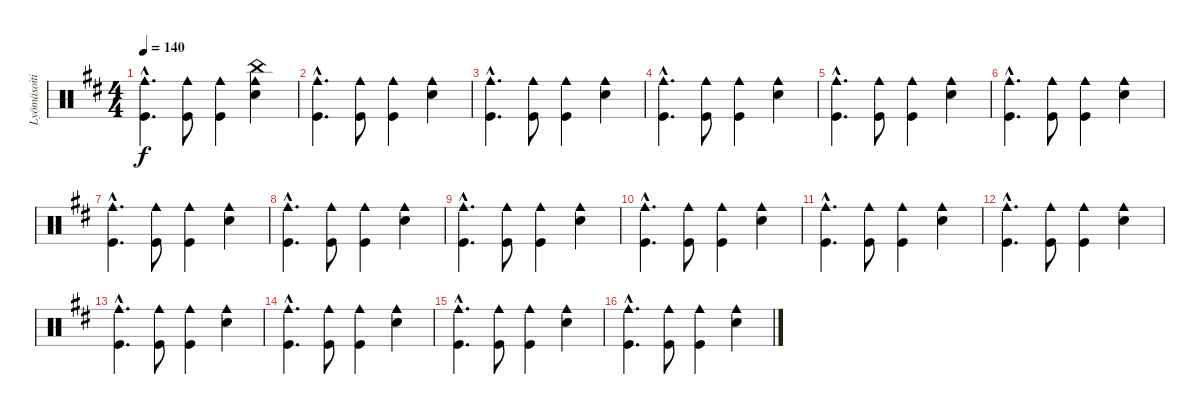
\track ("Lyömäsoitin" "Lyömäsoiti") {instrument percussion}
\staff {score}
\articulation defaults
\ts (4 4)
\tempo 140
\clef neutral
\ks d
("Cowbell medium (hit)"{hac} "Kick (hit)"{hac}).4{d dy f} ("Cowbell medium (hit)" "Kick (hit)").8 ("Cowbell medium (hit)" "Kick (hit)").4 ("Cowbell medium (hit)" "China (hit)" "Snare (hit) 2").4 |
("Cowbell medium (hit)"{hac} "Kick (hit)"{hac}).4{d} ("Cowbell medium (hit)" "Kick (hit)").8 ("Cowbell medium (hit)" "Kick (hit)").4 ("Cowbell medium (hit)" "Snare (hit) 2").4 |
("Cowbell medium (hit)"{hac} "Kick (hit)"{hac}).4{d} ("Cowbell medium (hit)" "Kick (hit)").8 ("Cowbell medium (hit)" "Kick (hit)").4 ("Cowbell medium (hit)" "Snare (hit) 2").4 |
("Cowbell medium (hit)"{hac} "Kick (hit)"{hac}).4{d} ("Cowbell medium (hit)" "Kick (hit)").8 ("Cowbell medium (hit)" "Kick (hit)").4 ("Cowbell medium (hit)" "Snare (hit) 2").4 |
("Cowbell medium (hit)"{hac} "Kick (hit)"{hac}).4{d} ("Cowbell medium (hit)" "Kick (hit)").8 ("Cowbell medium (hit)" "Kick (hit)").4 ("Cowbell medium (hit)" "Snare (hit) 2").4 |
("Cowbell medium (hit)"{hac} "Kick (hit)"{hac}).4{d} ("Cowbell medium (hit)" "Kick (hit)").8 ("Cowbell medium (hit)" "Kick (hit)").4 ("Cowbell medium (hit)" "Snare (hit) 2").4 |
("Cowbell medium (hit)"{hac} "Kick (hit)"{hac}).4{d} ("Cowbell medium (hit)" "Kick (hit)").8 ("Cowbell medium (hit)" "Kick (hit)").4 ("Cowbell medium (hit)" "Snare (hit) 2").4 |
("Cowbell medium (hit)"{hac} "Kick (hit)"{hac}).4{d} ("Cowbell medium (hit)" "Kick (hit)").8 ("Cowbell medium (hit)" "Kick (hit)").4 ("Cowbell medium (hit)" "Snare (hit) 2").4 |
("Cowbell medium (hit)"{hac} "Kick (hit)"{hac}).4{d} ("Cowbell medium (hit)" "Kick (hit)").8 ("Cowbell medium (hit)" "Kick (hit)").4 ("Cowbell medium (hit)" "Snare (hit) 2").4 |
("Cowbell medium (hit)"{hac} "Kick (hit)"{hac}).4{d} ("Cowbell medium (hit)" "Kick (hit)").8 ("Cowbell medium (hit)" "Kick (hit)").4 ("Cowbell medium (hit)" "Snare (hit) 2").4 |
("Cowbell medium (hit)"{hac} "Kick (hit)"{hac}).4{d} ("Cowbell medium (hit)" "Kick (hit)").8 ("Cowbell medium (hit)" "Kick (hit)").4 ("Cowbell medium (hit)" "Snare (hit) 2").4 |
("Cowbell medium (hit)"{hac} "Kick (hit)"{hac}).4{d} ("Cowbell medium (hit)" "Kick (hit)").8 ("Cowbell medium (hit)" "Kick (hit)").4 ("Cowbell medium (hit)" "Snare (hit) 2").4 |
("Cowbell medium (hit)"{hac} "Kick (hit)"{hac}).4{d} ("Cowbell medium (hit)" "Kick (hit)").8 ("Cowbell medium (hit)" "Kick (hit)").4 ("Cowbell medium (hit)" "Snare (hit) 2").4 |
("Cowbell medium (hit)"{hac} "Kick (hit)"{hac}).4{d} ("Cowbell medium (hit)" "Kick (hit)").8 ("Cowbell medium (hit)" "Kick (hit)").4 ("Cowbell medium (hit)" "Snare (hit) 2").4 |
("Cowbell medium (hit)"{hac} "Kick (hit)"{hac}).4{d} ("Cowbell medium (hit)" "Kick (hit)").8 ("Cowbell medium (hit)" "Kick (hit)").4 ("Cowbell medium (hit)" "Snare (hit) 2").4 |
("Cowbell medium (hit)"{hac} "Kick (hit)"{hac}).4{d} ("Cowbell medium (hit)" "Kick (hit)").8 ("Cowbell medium (hit)" "Kick (hit)").4 ("Cowbell medium (hit)" "Snare (hit) 2").4
